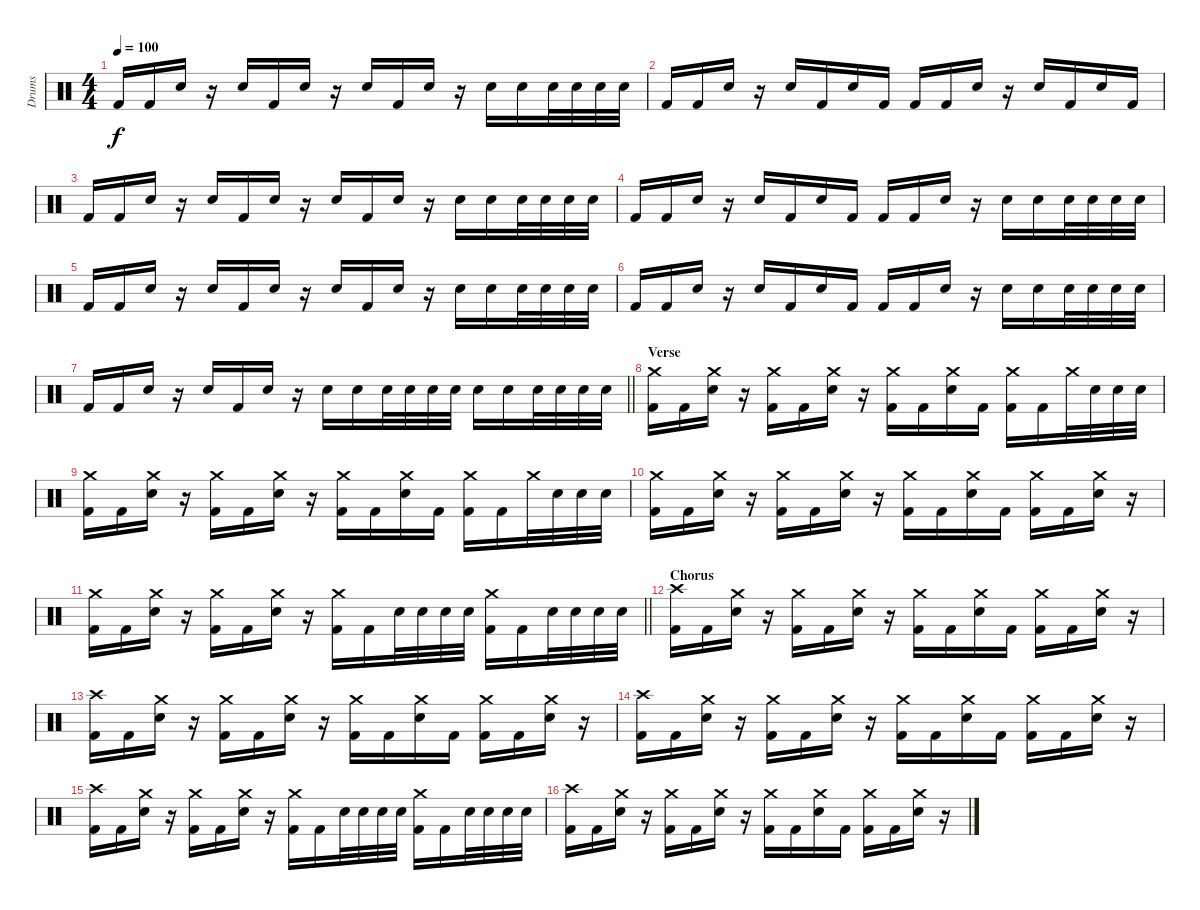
\track ("Drums" "Drums") {instrument percussion}
\staff {score}
\articulation defaults
\ts (4 4)
\tempo 100
\clef neutral
\ks c "Kick (hit) 2".16{dy f} "Kick (hit) 2".16 "Electric Snare (hit)".16
r.16 "Electric Snare (hit)".16 "Kick (hit) 2".16 "Electric Snare (hit)".16 r.16 "Electric Snare (hit)".16 "Kick (hit) 2".16 "Electric Snare (hit)".16 r.16 "Electric Snare (hit)".16 "Electric Snare (hit)".16 "Electric Snare (hit)".32 "Electric Snare (hit)".32 "Electric Snare (hit)".32 "Electric Snare (hit)".32 |
"Kick (hit) 2".16 "Kick (hit) 2".16 "Electric Snare (hit)".16 r.16 "Electric Snare (hit)".16 "Kick (hit) 2".16 "Electric Snare (hit)".16 "Kick (hit) 2".16 "Kick (hit) 2".16 "Kick (hit) 2".16 "Electric Snare (hit)".16 r.16 "Electric Snare (hit)".16 "Kick (hit) 2".16 "Electric Snare (hit)".16 "Kick (hit) 2".16 |
"Kick (hit) 2".16 "Kick (hit) 2".16 "Electric Snare (hit)".16 r.16 "Electric Snare (hit)".16 "Kick (hit) 2".16 "Electric Snare (hit)".16 r.16 "Electric Snare (hit)".16 "Kick (hit) 2".16 "Electric Snare (hit)".16 r.16 "Electric Snare (hit)".16 "Electric Snare (hit)".16 "Electric Snare (hit)".32 "Electric Snare (hit)".32 "Electric Snare (hit)".32 "Electric Snare (hit)".32 |
"Kick (hit) 2".16 "Kick (hit) 2".16 "Electric Snare (hit)".16 r.16 "Electric Snare (hit)".16 "Kick (hit) 2".16 "Electric Snare (hit)".16 "Kick (hit) 2".16 "Kick (hit) 2".16 "Kick (hit) 2".16 "Electric Snare (hit)".16 r.16 "Electric Snare (hit)".16 "Electric Snare (hit)".16 "Electric Snare (hit)".32 "Electric Snare (hit)".32 "Electric Snare (hit)".32 "Electric Snare (hit)".32 |
"Kick (hit) 2".16 "Kick (hit) 2".16 "Electric Snare (hit)".16 r.16 "Electric Snare (hit)".16 "Kick (hit) 2".16 "Electric Snare (hit)".16 r.16 "Electric Snare (hit)".16 "Kick (hit) 2".16 "Electric Snare (hit)".16 r.16 "Electric Snare (hit)".16 "Electric Snare (hit)".16 "Electric Snare (hit)".32 "Electric Snare (hit)".32 "Electric Snare (hit)".32 "Electric Snare (hit)".32 |
"Kick (hit) 2".16 "Kick (hit) 2".16 "Electric Snare (hit)".16 r.16 "Electric Snare (hit)".16 "Kick (hit) 2".16 "Electric Snare (hit)".16 "Kick (hit) 2".16 "Kick (hit) 2".16 "Kick (hit) 2".16 "Electric Snare (hit)".16 r.16 "Electric Snare (hit)".16 "Electric Snare (hit)".16 "Electric Snare (hit)".32 "Electric Snare (hit)".32 "Electric Snare (hit)".32 "Electric Snare (hit)".32 |
\barLineRight lightlight "Kick (hit) 2".16 "Kick (hit) 2".16 "Electric Snare (hit)".16
r.16 "Electric Snare (hit)".16 "Kick (hit) 2".16 "Electric Snare (hit)".16 r.16 "Electric Snare (hit)".16 "Electric Snare (hit)".16 "Electric Snare (hit)".32 "Electric Snare (hit)".32 "Electric Snare (hit)".32 "Electric Snare (hit)".32 "Electric Snare (hit)".16 "Electric Snare (hit)".16 "Electric Snare (hit)".32 "Electric Snare (hit)".32 "Electric Snare (hit)".32 "Electric Snare (hit)".32 |
\section ("" "Verse")
("Crash medium (hit)" "Kick (hit) 2").16 "Kick (hit) 2".16 ("Crash medium (hit)" "Electric Snare (hit)").16 r.16 ("Crash medium (hit)" "Kick (hit) 2").16 "Kick (hit) 2".16 ("Crash medium (hit)" "Electric Snare (hit)").16 r.16 ("Crash medium (hit)" "Kick (hit) 2").16 "Kick (hit) 2".16 ("Crash medium (hit)" "Electric Snare (hit)").16 "Kick (hit) 2".16 ("Crash medium (hit)" "Kick (hit) 2").16 "Kick (hit) 2".16 "Crash medium (hit)".32 "Electric Snare (hit)".32 "Electric Snare (hit)".32 "Electric Snare (hit)".32 |
("Crash medium (hit)" "Kick (hit) 2").16 "Kick (hit) 2".16 ("Crash medium (hit)" "Electric Snare (hit)").16 r.16 ("Crash medium (hit)" "Kick (hit) 2").16 "Kick (hit) 2".16 ("Crash medium (hit)" "Electric Snare (hit)").16 r.16 ("Crash medium (hit)" "Kick (hit) 2").16 "Kick (hit) 2".16 ("Crash medium (hit)" "Electric Snare (hit)").16 "Kick (hit) 2".16 ("Crash medium (hit)" "Kick (hit) 2").16 "Kick (hit) 2".16 "Crash medium (hit)".32 "Electric Snare (hit)".32 "Electric Snare (hit)".32 "Electric Snare (hit)".32 |
("Crash medium (hit)" "Kick (hit) 2").16 "Kick (hit) 2".16 ("Crash medium (hit)" "Electric Snare (hit)").16 r.16 ("Crash medium (hit)" "Kick (hit) 2").16 "Kick (hit) 2".16 ("Crash medium (hit)" "Electric Snare (hit)").16 r.16 ("Crash medium (hit)" "Kick (hit) 2").16 "Kick (hit) 2".16 ("Crash medium (hit)" "Electric Snare (hit)").16 "Kick (hit) 2".16 ("Crash medium (hit)" "Kick (hit) 2").16 "Kick (hit) 2".16 ("Crash medium (hit)" "Electric Snare (hit)").16 r.16 |
\barLineRight lightlight
("Crash medium (hit)" "Kick (hit) 2").16 "Kick (hit) 2".16 ("Crash medium (hit)" "Electric Snare (hit)").16 r.16 ("Crash medium (hit)" "Kick (hit) 2").16 "Kick (hit) 2".16 ("Crash medium (hit)" "Electric Snare (hit)").16 r.16 ("Crash medium (hit)" "Kick (hit) 2").16 "Kick (hit) 2".16 "Electric Snare (hit)".32 "Electric Snare (hit)".32 "Electric Snare (hit)".32 "Electric Snare (hit)".32 ("Crash medium (hit)" "Kick (hit) 2").16 "Kick (hit) 2".16 "Electric Snare (hit)".32 "Electric Snare (hit)".32 "Electric Snare (hit)".32 "Electric Snare (hit)".32 |
\section ("" "Chorus")
("Crash high (hit)" "Kick (hit) 2").16 "Kick (hit) 2".16 ("Crash medium (hit)" "Electric Snare (hit)").16 r.16 ("Crash medium (hit)" "Kick (hit) 2").16 "Kick (hit) 2".16 ("Crash medium (hit)" "Electric Snare (hit)").16 r.16 ("Crash medium (hit)" "Kick (hit) 2").16 "Kick (hit) 2".16 ("Crash medium (hit)" "Electric Snare (hit)").16 "Kick (hit) 2".16 ("Crash medium (hit)" "Kick (hit) 2").16 "Kick (hit) 2".16 ("Crash medium (hit)" "Electric Snare (hit)").16 r.16 |
("Crash high (hit)" "Kick (hit) 2").16 "Kick (hit) 2".16 ("Crash medium (hit)" "Electric Snare (hit)").16 r.16 ("Crash medium (hit)" "Kick (hit) 2").16 "Kick (hit) 2".16 ("Crash medium (hit)" "Electric Snare (hit)").16 r.16 ("Crash medium (hit)" "Kick (hit) 2").16 "Kick (hit) 2".16 ("Crash medium (hit)" "Electric Snare (hit)").16 "Kick (hit) 2".16 ("Crash medium (hit)" "Kick (hit) 2").16 "Kick (hit) 2".16 ("Crash medium (hit)" "Electric Snare (hit)").16 r.16 |
("Crash high (hit)" "Kick (hit) 2").16 "Kick (hit) 2".16 ("Crash medium (hit)" "Electric Snare (hit)").16 r.16 ("Crash medium (hit)" "Kick (hit) 2").16 "Kick (hit) 2".16 ("Crash medium (hit)" "Electric Snare (hit)").16 r.16 ("Crash medium (hit)" "Kick (hit) 2").16 "Kick (hit) 2".16 ("Crash medium (hit)" "Electric Snare (hit)").16 "Kick (hit) 2".16 ("Crash medium (hit)" "Kick (hit) 2").16 "Kick (hit) 2".16 ("Crash medium (hit)" "Electric Snare (hit)").16 r.16 |
("Crash high (hit)" "Kick (hit) 2").16 "Kick (hit) 2".16 ("Crash medium (hit)" "Electric Snare (hit)").16 r.16 ("Crash medium (hit)" "Kick (hit) 2").16 "Kick (hit) 2".16 ("Crash medium (hit)" "Electric Snare (hit)").16 r.16 ("Crash medium (hit)" "Kick (hit) 2").16 "Kick (hit) 2".16 "Electric Snare (hit)".32 "Electric Snare (hit)".32 "Electric Snare (hit)".32 "Electric Snare (hit)".32 ("Crash medium (hit)" "Kick (hit) 2").16 "Kick (hit) 2".16 "Electric Snare (hit)".32 "Electric Snare (hit)".32 "Electric Snare (hit)".32 "Electric Snare (hit)".32 |
("Crash high (hit)" "Kick (hit) 2").16 "Kick (hit) 2".16 ("Crash medium (hit)" "Electric Snare (hit)").16 r.16 ("Crash medium (hit)" "Kick (hit) 2").16 "Kick (hit) 2".16 ("Crash medium (hit)" "Electric Snare (hit)").16 r.16 ("Crash medium (hit)" "Kick (hit) 2").16 "Kick (hit) 2".16 ("Crash medium (hit)" "Electric Snare (hit)").16 "Kick (hit) 2".16 ("Crash medium (hit)" "Kick (hit) 2").16 "Kick (hit) 2".16 ("Crash medium (hit)" "Electric Snare (hit)").16 r.16
